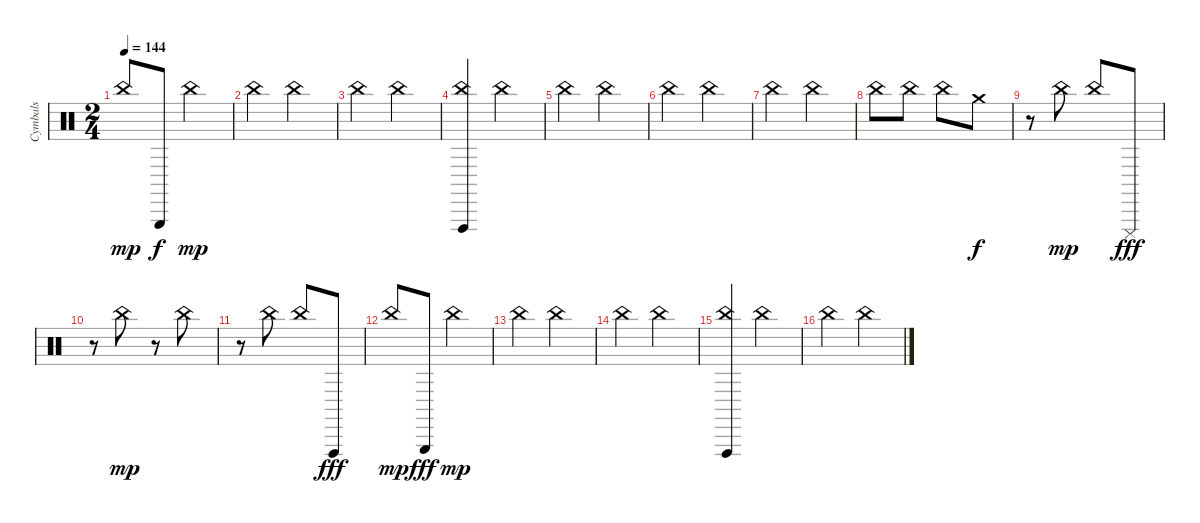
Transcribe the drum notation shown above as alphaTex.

\track ("Cymbals             " "Cymbals   ") {instrument percussion}
\staff {score}
\articulation defaults
\ts (2 4)
\tempo 144
\clef neutral
\ks c "China (hit)".8{dy mp} "Triangle (hit)".8{dy f} "China (hit)".4{dy mp}
|
"China (hit)".4 "China (hit)".4 |
"China (hit)".4 "China (hit)".4 |
("Vibraslap (hit)" "China (hit)").4 "China (hit)".4 |
"China (hit)".4 "China (hit)".4 |
"China (hit)".4 "China (hit)".4 |
"China (hit)".4 "China (hit)".4 |
"China (hit)".8 "China (hit)".8 "China (hit)".8 "Crash medium (hit)".8{dy f} |
r.8 "China (hit)".8{dy mp} "China (hit)".8 "Cuica (mute)".8{dy fff} |
r.8 "China (hit)".8{dy mp} r.8 "China (hit)".8 |
r.8 "China (hit)".8 "China (hit)".8 "Vibraslap (hit)".8{dy fff} |
"China (hit)".8{dy mp} "Triangle (hit)".8{dy fff} "China (hit)".4{dy mp} |
"China (hit)".4 "China (hit)".4 |
"China (hit)".4 "China (hit)".4 |
("Vibraslap (hit)" "China (hit)").4 "China (hit)".4 |
"China (hit)".4 "China (hit)".4
